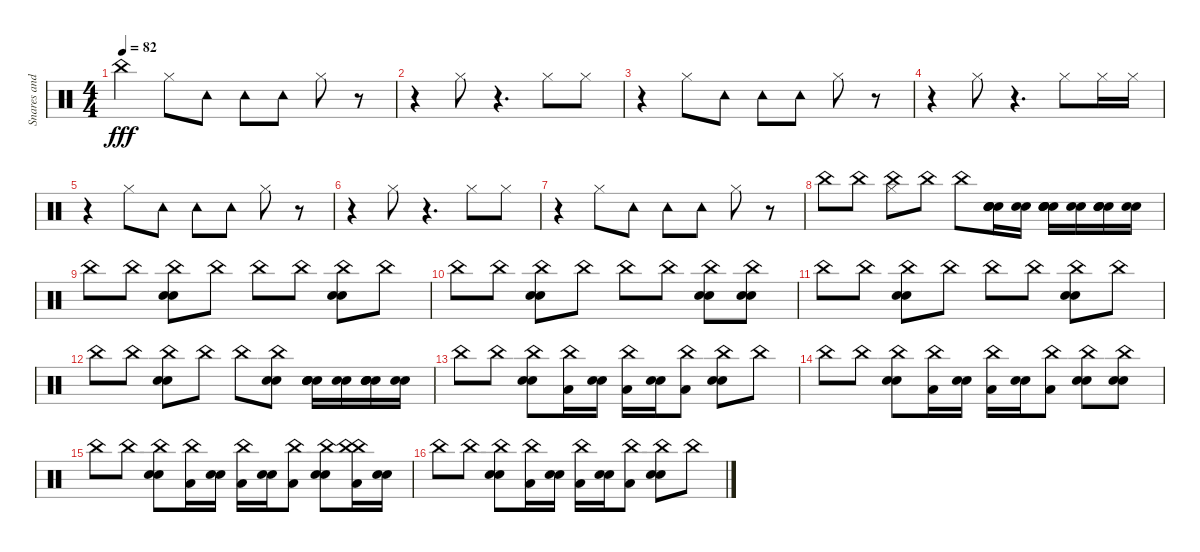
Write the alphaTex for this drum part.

\track ("Snares and Cymbals" "Snares and") {instrument percussion}
\staff {score}
\articulation defaults
\ts (4 4)
\tempo 82
\clef neutral
\ks c "China (hit)".4{dy fff} "Hi-Hat (closed)".8 "Tambourine (hit)".8 "Tambourine (hit)".8 "Tambourine (hit)".8 "Hi-Hat (closed)".8
r.8 |
r.4 "Hi-Hat (closed)".8 r.4{d} "Hi-Hat (closed)".8 "Hi-Hat (closed)".8 |
r.4 "Hi-Hat (closed)".8 "Tambourine (hit)".8 "Tambourine (hit)".8 "Tambourine (hit)".8 "Hi-Hat (closed)".8 r.8 |
r.4 "Hi-Hat (closed)".8 r.4{d} "Hi-Hat (closed)".8 "Hi-Hat (closed)".16 "Hi-Hat (closed)".16 |
r.4 "Hi-Hat (closed)".8 "Tambourine (hit)".8 "Tambourine (hit)".8 "Tambourine (hit)".8 "Hi-Hat (closed)".8 r.8 |
r.4 "Hi-Hat (closed)".8 r.4{d} "Hi-Hat (closed)".8 "Hi-Hat (closed)".8 |
r.4 "Hi-Hat (closed)".8 "Tambourine (hit)".8 "Tambourine (hit)".8 "Tambourine (hit)".8 "Hi-Hat (closed)".8 r.8 |
"China (hit)".8 "China (hit)".8 ("Hi-Hat (closed)" "China (hit)").8 "China (hit)".8 "China (hit)".8 ("Snare (hit) 2" "Electric Snare (hit)" "Snare (hit) 2" "Electric Snare (hit)").16 ("Electric Snare (hit)" "Snare (hit) 2").16 ("Snare (hit) 2" "Electric Snare (hit)" "Electric Snare (hit)" "Snare (hit) 2").16 ("Electric Snare (hit)" "Snare (hit) 2").16 ("Snare (hit) 2" "Electric Snare (hit)" "Electric Snare (hit)" "Snare (hit) 2").16 ("Electric Snare (hit)" "Snare (hit) 2").16 |
"China (hit)".8{volume 13} "China (hit)".8 ("China (hit)" "Snare (hit) 2" "Electric Snare (hit)").8 "China (hit)".8 "China (hit)".8 "China (hit)".8 ("China (hit)" "Snare (hit) 2" "Electric Snare (hit)").8 "China (hit)".8 |
"China (hit)".8 "China (hit)".8 ("China (hit)" "Snare (hit) 2" "Electric Snare (hit)").8 "China (hit)".8 "China (hit)".8 "China (hit)".8 ("China (hit)" "Snare (hit) 2" "Electric Snare (hit)").8 ("Snare (hit) 2" "Electric Snare (hit)" "China (hit)").8 |
"China (hit)".8 "China (hit)".8 ("China (hit)" "Snare (hit) 2" "Electric Snare (hit)").8 "China (hit)".8 "China (hit)".8 "China (hit)".8 ("China (hit)" "Snare (hit) 2" "Electric Snare (hit)").8 "China (hit)".8 |
"China (hit)".8 "China (hit)".8 ("China (hit)" "Snare (hit) 2" "Electric Snare (hit)").8 "China (hit)".8 "China (hit)".8 ("Snare (hit) 2" "Electric Snare (hit)" "China (hit)").8 ("Snare (hit) 2" "Electric Snare (hit)" "Electric Snare (hit)" "Snare (hit) 2").16 ("Electric Snare (hit)" "Snare (hit) 2").16 ("Snare (hit) 2" "Electric Snare (hit)" "Electric Snare (hit)" "Snare (hit) 2").16 ("Electric Snare (hit)" "Snare (hit) 2").16 |
"China (hit)".8 "China (hit)".8 ("China (hit)" "Snare (hit) 2" "Electric Snare (hit)").8 ("China (hit)" "Low Tom (hit)").16 ("Snare (hit) 2" "Electric Snare (hit)").16 ("China (hit)" "Low Tom (hit)").16 ("Snare (hit) 2" "Electric Snare (hit)").16 ("China (hit)" "Low Tom (hit)").8 ("China (hit)" "Snare (hit) 2" "Electric Snare (hit)").8 "China (hit)".8 |
"China (hit)".8 "China (hit)".8 ("China (hit)" "Snare (hit) 2" "Electric Snare (hit)").8 ("China (hit)" "Low Tom (hit)").16 ("Snare (hit) 2" "Electric Snare (hit)").16 ("China (hit)" "Low Tom (hit)").16 ("Snare (hit) 2" "Electric Snare (hit)").16 ("China (hit)" "Low Tom (hit)").8 ("China (hit)" "Snare (hit) 2" "Electric Snare (hit)").8 ("China (hit)" "Electric Snare (hit)" "Snare (hit) 2").8 |
"China (hit)".8 "China (hit)".8 ("China (hit)" "Snare (hit) 2" "Electric Snare (hit)").8 ("China (hit)" "Low Tom (hit)").16 ("Snare (hit) 2" "Electric Snare (hit)").16 ("China (hit)" "Low Tom (hit)").16 ("Snare (hit) 2" "Electric Snare (hit)").16 ("China (hit)" "Low Tom (hit)").8 ("China (hit)" "Snare (hit) 2" "Electric Snare (hit)").8 ("China (hit)" "China (hit)" "Low Tom (hit)").16 ("Snare (hit) 2" "Electric Snare (hit)").16 |
"China (hit)".8 "China (hit)".8 ("China (hit)" "Snare (hit) 2" "Electric Snare (hit)").8 ("China (hit)" "Low Tom (hit)").16 ("Snare (hit) 2" "Electric Snare (hit)").16 ("China (hit)" "Low Tom (hit)").16 ("Snare (hit) 2" "Electric Snare (hit)").16 ("China (hit)" "Low Tom (hit)").8 ("China (hit)" "Snare (hit) 2" "Electric Snare (hit)").8 "China (hit)".8
